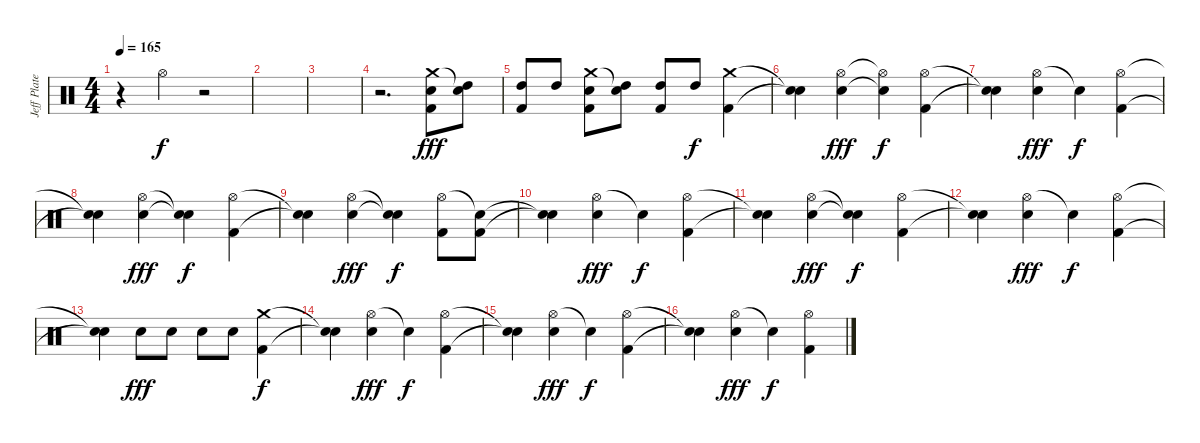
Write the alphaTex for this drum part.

\track ("Jeff Plate" "Jeff Plate") {instrument percussion}
\staff {score}
\articulation defaults
\ts (4 4)
\tempo 165
\clef neutral
\ks c
r.4{dy f} "Hi-Hat (open)".4 r.2 |
|
|
r.2{d} ("Crash medium (hit)" "Electric Snare (hit)" "Kick (hit) 2").8{dy fff} ("Snare (hit)"{t} "High Tom (hit)").8 |
("High Tom (hit)" "Kick (hit) 2").8 "High Tom (hit)".8 ("Crash medium (hit)" "Electric Snare (hit)" "Kick (hit) 2").8 ("Snare (hit)"{t} "High Tom (hit)").8 ("High Tom (hit)" "Kick (hit) 2").8 "High Tom (hit)".8{dy f} ("Crash medium (hit)" "Kick (hit) 2").4 |
("Snare (hit)"{t} "Snare (hit)"{t}).4 ("Hi-Hat (open)" "Electric Snare (hit)").4{dy fff} ("Hi-Hat (open)"{t} "Electric Snare (hit)"{t}).4{dy f} ("Hi-Hat (open)" "Kick (hit) 2").4 |
("Snare (hit)"{t} "Snare (hit)"{t}).4 ("Hi-Hat (open)" "Electric Snare (hit)").4{dy fff} "Snare (hit)"{t}.4{dy f} ("Hi-Hat (open)" "Kick (hit) 2").4 |
("Snare (hit)"{t} "Snare (hit)"{t}).4 ("Hi-Hat (open)" "Electric Snare (hit)").4{dy fff} ("Snare (hit)"{t} "Snare (hit)"{t}).4{dy f} ("Hi-Hat (open)" "Kick (hit) 2").4 |
("Snare (hit)"{t} "Snare (hit)"{t}).4 ("Hi-Hat (open)" "Electric Snare (hit)").4{dy fff} ("Snare (hit)"{t} "Snare (hit)"{t}).4{dy f} ("Hi-Hat (open)" "Kick (hit) 2").8 ("Snare (hit)"{t} "Kick (hit) 2").8 |
("Snare (hit)"{t} "Snare (hit)"{t}).4 ("Hi-Hat (open)" "Electric Snare (hit)").4{dy fff} "Snare (hit)"{t}.4{dy f} ("Hi-Hat (open)" "Kick (hit) 2").4 |
("Snare (hit)"{t} "Snare (hit)"{t}).4 ("Hi-Hat (open)" "Electric Snare (hit)").4{dy fff} ("Snare (hit)"{t} "Snare (hit)"{t}).4{dy f} ("Hi-Hat (open)" "Kick (hit) 2").4 |
("Snare (hit)"{t} "Snare (hit)"{t}).4 ("Hi-Hat (open)" "Electric Snare (hit)").4{dy fff} "Snare (hit)"{t}.4{dy f} ("Hi-Hat (open)" "Kick (hit) 2").4 |
("Electric Snare (hit)"{t} "Snare (hit)"{t}).4 "Electric Snare (hit)".8{dy fff} "Electric Snare (hit)".8 "Electric Snare (hit)".8 "Electric Snare (hit)".8 ("Crash medium (hit)" "Kick (hit) 2").4{dy f} |
("Snare (hit)"{t} "Snare (hit)"{t}).4 ("Hi-Hat (open)" "Electric Snare (hit)").4{dy fff} "Snare (hit)"{t}.4{dy f} ("Hi-Hat (open)" "Kick (hit) 2").4 |
("Snare (hit)"{t} "Snare (hit)"{t}).4 ("Hi-Hat (open)" "Electric Snare (hit)").4{dy fff} "Snare (hit)"{t}.4{dy f} ("Hi-Hat (open)" "Kick (hit) 2").4 |
("Snare (hit)"{t} "Snare (hit)"{t}).4 ("Hi-Hat (open)" "Electric Snare (hit)").4{dy fff} "Snare (hit)"{t}.4{dy f} ("Hi-Hat (open)" "Kick (hit) 2").4
